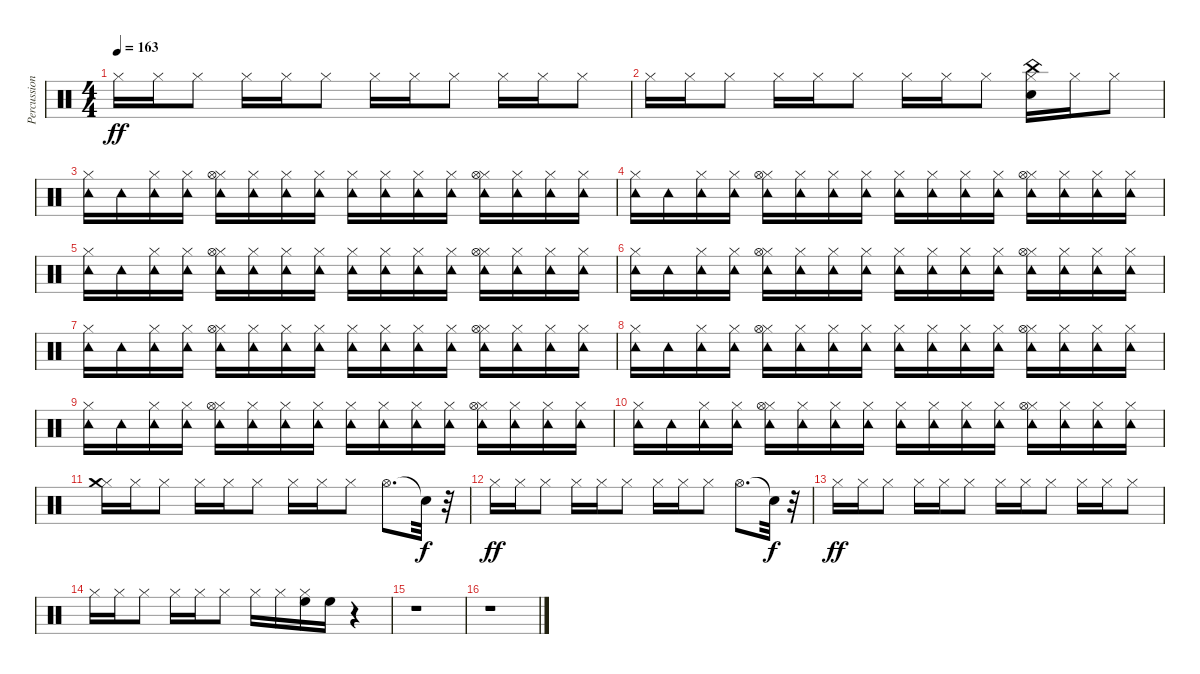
\track ("Percussion (Standard Kit)" "Percussion") {instrument percussion}
\staff {score}
\articulation defaults
\ts (4 4)
\tempo 163
\clef neutral
\ks c "Hi-Hat (closed)".16{dy ff} "Hi-Hat (closed)".16 "Hi-Hat (closed)".8 "Hi-Hat (closed)".16 "Hi-Hat (closed)".16 "Hi-Hat (closed)".8 "Hi-Hat (closed)".16 "Hi-Hat (closed)".16 "Hi-Hat (closed)".8 "Hi-Hat (closed)".16 "Hi-Hat (closed)".16 "Hi-Hat (closed)".8
|
"Hi-Hat (closed)".16 "Hi-Hat (closed)".16 "Hi-Hat (closed)".8 "Hi-Hat (closed)".16 "Hi-Hat (closed)".16 "Hi-Hat (closed)".8 "Hi-Hat (closed)".16 "Hi-Hat (closed)".16 "Hi-Hat (closed)".8 ("Electric Snare (hit)" "Hi-Hat (closed)" "China (hit)").16 "Hi-Hat (closed)".16 "Hi-Hat (closed)".8 |
("Hi-Hat (closed)" "Tambourine (hit)").16 "Tambourine (hit)".16 ("Hi-Hat (closed)" "Tambourine (hit)").16 ("Hi-Hat (closed)" "Tambourine (hit)").16 ("Hi-Hat (closed)" "Hi-Hat (open)" "Tambourine (hit)").16 ("Hi-Hat (closed)" "Tambourine (hit)").16 ("Hi-Hat (closed)" "Tambourine (hit)").16 ("Hi-Hat (closed)" "Tambourine (hit)").16 ("Hi-Hat (closed)" "Tambourine (hit)").16 ("Hi-Hat (closed)" "Tambourine (hit)").16 ("Hi-Hat (closed)" "Tambourine (hit)").16 ("Hi-Hat (closed)" "Tambourine (hit)").16 ("Hi-Hat (closed)" "Hi-Hat (open)" "Tambourine (hit)").16 ("Hi-Hat (closed)" "Tambourine (hit)").16 ("Hi-Hat (closed)" "Tambourine (hit)").16 ("Hi-Hat (closed)" "Tambourine (hit)").16 |
("Hi-Hat (closed)" "Tambourine (hit)").16 "Tambourine (hit)".16 ("Hi-Hat (closed)" "Tambourine (hit)").16 ("Hi-Hat (closed)" "Tambourine (hit)").16 ("Hi-Hat (closed)" "Hi-Hat (open)" "Tambourine (hit)").16 ("Hi-Hat (closed)" "Tambourine (hit)").16 ("Hi-Hat (closed)" "Tambourine (hit)").16 ("Hi-Hat (closed)" "Tambourine (hit)").16 ("Hi-Hat (closed)" "Tambourine (hit)").16 ("Hi-Hat (closed)" "Tambourine (hit)").16 ("Hi-Hat (closed)" "Tambourine (hit)").16 ("Hi-Hat (closed)" "Tambourine (hit)").16 ("Hi-Hat (closed)" "Hi-Hat (open)" "Tambourine (hit)").16 ("Hi-Hat (closed)" "Tambourine (hit)").16 ("Hi-Hat (closed)" "Tambourine (hit)").16 ("Hi-Hat (closed)" "Tambourine (hit)").16 |
("Hi-Hat (closed)" "Tambourine (hit)").16 "Tambourine (hit)".16 ("Hi-Hat (closed)" "Tambourine (hit)").16 ("Hi-Hat (closed)" "Tambourine (hit)").16 ("Hi-Hat (closed)" "Hi-Hat (open)" "Tambourine (hit)").16 ("Hi-Hat (closed)" "Tambourine (hit)").16 ("Hi-Hat (closed)" "Tambourine (hit)").16 ("Hi-Hat (closed)" "Tambourine (hit)").16 ("Hi-Hat (closed)" "Tambourine (hit)").16 ("Hi-Hat (closed)" "Tambourine (hit)").16 ("Hi-Hat (closed)" "Tambourine (hit)").16 ("Hi-Hat (closed)" "Tambourine (hit)").16 ("Hi-Hat (closed)" "Hi-Hat (open)" "Tambourine (hit)").16 ("Hi-Hat (closed)" "Tambourine (hit)").16 ("Hi-Hat (closed)" "Tambourine (hit)").16 ("Hi-Hat (closed)" "Tambourine (hit)").16 |
("Hi-Hat (closed)" "Tambourine (hit)").16 "Tambourine (hit)".16 ("Hi-Hat (closed)" "Tambourine (hit)").16 ("Hi-Hat (closed)" "Tambourine (hit)").16 ("Hi-Hat (closed)" "Hi-Hat (open)" "Tambourine (hit)").16 ("Hi-Hat (closed)" "Tambourine (hit)").16 ("Hi-Hat (closed)" "Tambourine (hit)").16 ("Hi-Hat (closed)" "Tambourine (hit)").16 ("Hi-Hat (closed)" "Tambourine (hit)").16 ("Hi-Hat (closed)" "Tambourine (hit)").16 ("Hi-Hat (closed)" "Tambourine (hit)").16 ("Hi-Hat (closed)" "Tambourine (hit)").16 ("Hi-Hat (closed)" "Hi-Hat (open)" "Tambourine (hit)").16 ("Hi-Hat (closed)" "Tambourine (hit)").16 ("Hi-Hat (closed)" "Tambourine (hit)").16 ("Hi-Hat (closed)" "Tambourine (hit)").16 |
("Hi-Hat (closed)" "Tambourine (hit)").16 "Tambourine (hit)".16 ("Hi-Hat (closed)" "Tambourine (hit)").16 ("Hi-Hat (closed)" "Tambourine (hit)").16 ("Hi-Hat (closed)" "Hi-Hat (open)" "Tambourine (hit)").16 ("Hi-Hat (closed)" "Tambourine (hit)").16 ("Hi-Hat (closed)" "Tambourine (hit)").16 ("Hi-Hat (closed)" "Tambourine (hit)").16 ("Hi-Hat (closed)" "Tambourine (hit)").16 ("Hi-Hat (closed)" "Tambourine (hit)").16 ("Hi-Hat (closed)" "Tambourine (hit)").16 ("Hi-Hat (closed)" "Tambourine (hit)").16 ("Hi-Hat (closed)" "Hi-Hat (open)" "Tambourine (hit)").16 ("Hi-Hat (closed)" "Tambourine (hit)").16 ("Hi-Hat (closed)" "Tambourine (hit)").16 ("Hi-Hat (closed)" "Tambourine (hit)").16 |
("Hi-Hat (closed)" "Tambourine (hit)").16 "Tambourine (hit)".16 ("Hi-Hat (closed)" "Tambourine (hit)").16 ("Hi-Hat (closed)" "Tambourine (hit)").16 ("Hi-Hat (closed)" "Hi-Hat (open)" "Tambourine (hit)").16 ("Hi-Hat (closed)" "Tambourine (hit)").16 ("Hi-Hat (closed)" "Tambourine (hit)").16 ("Hi-Hat (closed)" "Tambourine (hit)").16 ("Hi-Hat (closed)" "Tambourine (hit)").16 ("Hi-Hat (closed)" "Tambourine (hit)").16 ("Hi-Hat (closed)" "Tambourine (hit)").16 ("Hi-Hat (closed)" "Tambourine (hit)").16 ("Hi-Hat (closed)" "Hi-Hat (open)" "Tambourine (hit)").16 ("Hi-Hat (closed)" "Tambourine (hit)").16 ("Hi-Hat (closed)" "Tambourine (hit)").16 ("Hi-Hat (closed)" "Tambourine (hit)").16 |
("Hi-Hat (closed)" "Tambourine (hit)").16 "Tambourine (hit)".16 ("Hi-Hat (closed)" "Tambourine (hit)").16 ("Hi-Hat (closed)" "Tambourine (hit)").16 ("Hi-Hat (closed)" "Hi-Hat (open)" "Tambourine (hit)").16 ("Hi-Hat (closed)" "Tambourine (hit)").16 ("Hi-Hat (closed)" "Tambourine (hit)").16 ("Hi-Hat (closed)" "Tambourine (hit)").16 ("Hi-Hat (closed)" "Tambourine (hit)").16 ("Hi-Hat (closed)" "Tambourine (hit)").16 ("Hi-Hat (closed)" "Tambourine (hit)").16 ("Hi-Hat (closed)" "Tambourine (hit)").16 ("Hi-Hat (closed)" "Hi-Hat (open)" "Tambourine (hit)").16 ("Hi-Hat (closed)" "Tambourine (hit)").16 ("Hi-Hat (closed)" "Tambourine (hit)").16 ("Hi-Hat (closed)" "Tambourine (hit)").16 |
("Hi-Hat (closed)" "Tambourine (hit)").16 "Tambourine (hit)".16 ("Hi-Hat (closed)" "Tambourine (hit)").16 ("Hi-Hat (closed)" "Tambourine (hit)").16 ("Hi-Hat (closed)" "Hi-Hat (open)" "Tambourine (hit)").16 ("Hi-Hat (closed)" "Tambourine (hit)").16 ("Hi-Hat (closed)" "Tambourine (hit)").16 ("Hi-Hat (closed)" "Tambourine (hit)").16 ("Hi-Hat (closed)" "Tambourine (hit)").16 ("Hi-Hat (closed)" "Tambourine (hit)").16 ("Hi-Hat (closed)" "Tambourine (hit)").16 ("Hi-Hat (closed)" "Tambourine (hit)").16 ("Hi-Hat (closed)" "Hi-Hat (open)" "Tambourine (hit)").16 ("Hi-Hat (closed)" "Tambourine (hit)").16 ("Hi-Hat (closed)" "Tambourine (hit)").16 ("Hi-Hat (closed)" "Tambourine (hit)").16 |
("Hi-Hat (closed)" "Crash medium (hit)").16 "Hi-Hat (closed)".16 "Hi-Hat (closed)".8 "Hi-Hat (closed)".16 "Hi-Hat (closed)".16 "Hi-Hat (closed)".8 "Hi-Hat (closed)".16 "Hi-Hat (closed)".16 "Hi-Hat (closed)".8 "Hi-Hat (open)".8{d} "Snare (hit)"{t}.32{dy f} r.32 |
"Hi-Hat (closed)".16{dy ff} "Hi-Hat (closed)".16 "Hi-Hat (closed)".8 "Hi-Hat (closed)".16 "Hi-Hat (closed)".16 "Hi-Hat (closed)".8 "Hi-Hat (closed)".16 "Hi-Hat (closed)".16 "Hi-Hat (closed)".8 "Hi-Hat (open)".8{d} "Snare (hit)"{t}.32{dy f} r.32 |
"Hi-Hat (closed)".16{dy ff} "Hi-Hat (closed)".16 "Hi-Hat (closed)".8 "Hi-Hat (closed)".16 "Hi-Hat (closed)".16 "Hi-Hat (closed)".8 "Hi-Hat (closed)".16 "Hi-Hat (closed)".16 "Hi-Hat (closed)".8 "Hi-Hat (closed)".16 "Hi-Hat (closed)".16 "Hi-Hat (closed)".8 |
"Hi-Hat (closed)".16 "Hi-Hat (closed)".16 "Hi-Hat (closed)".8 "Hi-Hat (closed)".16 "Hi-Hat (closed)".16 "Hi-Hat (closed)".8 "Hi-Hat (closed)".16 "Hi-Hat (closed)".16 ("Hi-Hat (closed)" "High Floor Tom (hit)").16 "High Floor Tom (hit)".16 r.4 |
r.1 |
r.1
